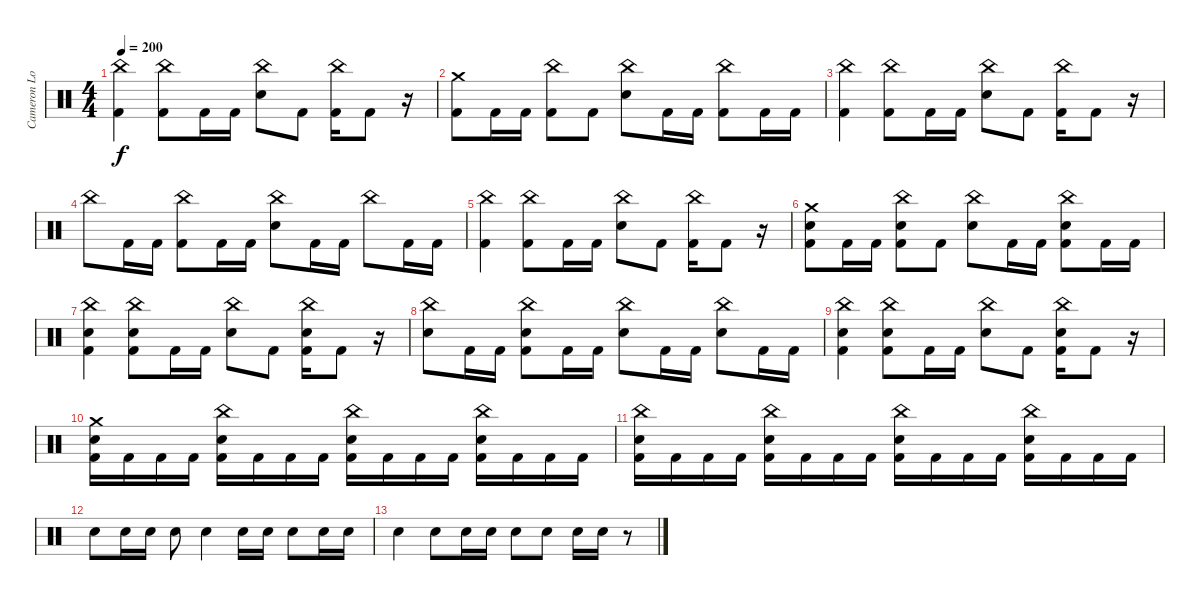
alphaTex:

\track ("Cameron Losch - drums" "Cameron Lo") {instrument percussion}
\staff {score}
\articulation defaults
\ts (4 4)
\tempo 200
\clef neutral
\ks c
("China (hit)" "Kick (hit) 2").4{dy f} ("China (hit)" "Kick (hit) 2").8 "Kick (hit) 2".16 "Kick (hit) 2".16 ("China (hit)" "Electric Snare (hit)").8 "Kick (hit) 2".8 ("China (hit)" "Kick (hit) 2").16 "Kick (hit) 2".8 r.16 |
("Crash medium (hit)" "Kick (hit) 2").8 "Kick (hit) 2".16 "Kick (hit) 2".16 ("China (hit)" "Kick (hit) 2").8 "Kick (hit) 2".8 ("China (hit)" "Electric Snare (hit)").8 "Kick (hit) 2".16 "Kick (hit) 2".16 ("China (hit)" "Kick (hit) 2").8 "Kick (hit) 2".16 "Kick (hit) 2".16 |
("China (hit)" "Kick (hit) 2").4 ("China (hit)" "Kick (hit) 2").8 "Kick (hit) 2".16 "Kick (hit) 2".16 ("China (hit)" "Electric Snare (hit)").8 "Kick (hit) 2".8 ("China (hit)" "Kick (hit) 2").16 "Kick (hit) 2".8 r.16 |
"China (hit)".8 "Kick (hit) 2".16 "Kick (hit) 2".16 ("China (hit)" "Kick (hit) 2").8 "Kick (hit) 2".16 "Kick (hit) 2".16 ("China (hit)" "Electric Snare (hit)").8 "Kick (hit) 2".16 "Kick (hit) 2".16 "China (hit)".8 "Kick (hit) 2".16 "Kick (hit) 2".16 |
("China (hit)" "Kick (hit) 2").4 ("China (hit)" "Kick (hit) 2").8 "Kick (hit) 2".16 "Kick (hit) 2".16 ("China (hit)" "Electric Snare (hit)").8 "Kick (hit) 2".8 ("China (hit)" "Kick (hit) 2").16 "Kick (hit) 2".8 r.16 |
("Crash medium (hit)" "Electric Snare (hit)" "Kick (hit) 2").8 "Kick (hit) 2".16 "Kick (hit) 2".16 ("China (hit)" "Electric Snare (hit)" "Kick (hit) 2").8 "Kick (hit) 2".8 ("China (hit)" "Electric Snare (hit)").8 "Kick (hit) 2".16 "Kick (hit) 2".16 ("China (hit)" "Electric Snare (hit)" "Kick (hit) 2").8 "Kick (hit) 2".16 "Kick (hit) 2".16 |
("China (hit)" "Electric Snare (hit)" "Kick (hit) 2").4 ("China (hit)" "Electric Snare (hit)" "Kick (hit) 2").8 "Kick (hit) 2".16 "Kick (hit) 2".16 ("China (hit)" "Electric Snare (hit)").8 "Kick (hit) 2".8 ("China (hit)" "Electric Snare (hit)" "Kick (hit) 2").16 "Kick (hit) 2".8 r.16 |
("China (hit)" "Electric Snare (hit)").8 "Kick (hit) 2".16 "Kick (hit) 2".16 ("China (hit)" "Electric Snare (hit)" "Kick (hit) 2").8 "Kick (hit) 2".16 "Kick (hit) 2".16 ("China (hit)" "Electric Snare (hit)").8 "Kick (hit) 2".16 "Kick (hit) 2".16 ("China (hit)" "Electric Snare (hit)").8 "Kick (hit) 2".16 "Kick (hit) 2".16 |
("China (hit)" "Electric Snare (hit)" "Kick (hit) 2").4 ("China (hit)" "Electric Snare (hit)" "Kick (hit) 2").8 "Kick (hit) 2".16 "Kick (hit) 2".16 ("China (hit)" "Electric Snare (hit)").8 "Kick (hit) 2".8 ("China (hit)" "Electric Snare (hit)" "Kick (hit) 2").16 "Kick (hit) 2".8 r.16 |
("Crash medium (hit)" "Electric Snare (hit)" "Kick (hit) 2").16 "Kick (hit) 2".16 "Kick (hit) 2".16 "Kick (hit) 2".16 ("China (hit)" "Electric Snare (hit)" "Kick (hit) 2").16 "Kick (hit) 2".16 "Kick (hit) 2".16 "Kick (hit) 2".16 ("China (hit)" "Electric Snare (hit)" "Kick (hit) 2").16 "Kick (hit) 2".16 "Kick (hit) 2".16 "Kick (hit) 2".16 ("China (hit)" "Electric Snare (hit)" "Kick (hit) 2").16 "Kick (hit) 2".16 "Kick (hit) 2".16 "Kick (hit) 2".16 |
("China (hit)" "Electric Snare (hit)" "Kick (hit) 2").16 "Kick (hit) 2".16 "Kick (hit) 2".16 "Kick (hit) 2".16 ("China (hit)" "Electric Snare (hit)" "Kick (hit) 2").16 "Kick (hit) 2".16 "Kick (hit) 2".16 "Kick (hit) 2".16 ("China (hit)" "Electric Snare (hit)" "Kick (hit) 2").16 "Kick (hit) 2".16 "Kick (hit) 2".16 "Kick (hit) 2".16 ("China (hit)" "Electric Snare (hit)" "Kick (hit) 2").16 "Kick (hit) 2".16 "Kick (hit) 2".16 "Kick (hit) 2".16 |
"Electric Snare (hit)".8 "Electric Snare (hit)".16 "Electric Snare (hit)".16 "Electric Snare (hit)".8 "Electric Snare (hit)".4 "Electric Snare (hit)".16 "Electric Snare (hit)".16 "Electric Snare (hit)".8 "Electric Snare (hit)".16 "Electric Snare (hit)".16 |
"Electric Snare (hit)".4 "Electric Snare (hit)".8 "Electric Snare (hit)".16 "Electric Snare (hit)".16 "Electric Snare (hit)".8 "Electric Snare (hit)".8 "Electric Snare (hit)".16 "Electric Snare (hit)".16 r.8
